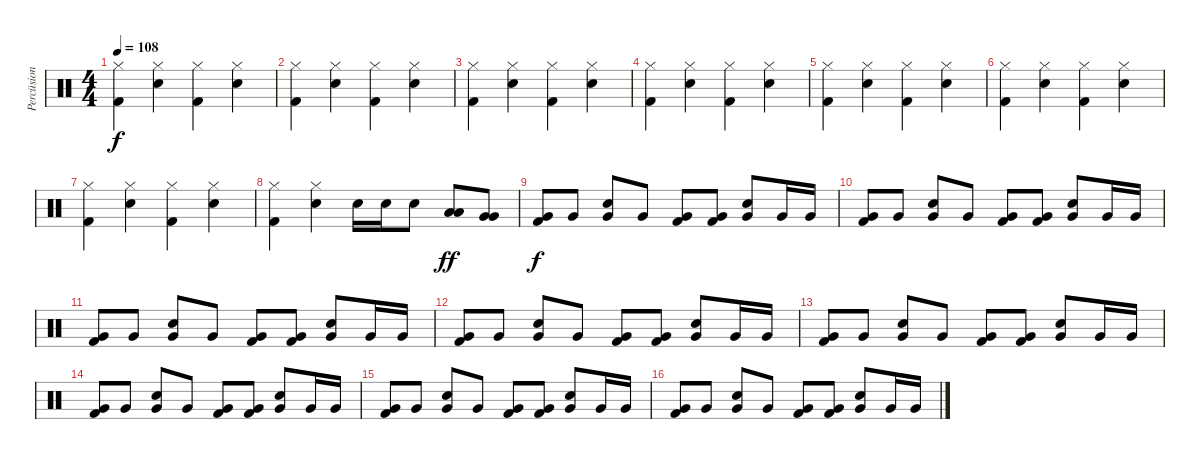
\track ("Percüsion" "Percüsion") {instrument percussion}
\staff {score}
\articulation defaults
\ts (4 4)
\tempo 108
\clef neutral
\ks c
("Hi-Hat (closed)" "Kick (hit) 2").4{dy f} ("Hi-Hat (closed)" "Snare (hit) 2").4 ("Hi-Hat (closed)" "Kick (hit) 2").4 ("Hi-Hat (closed)" "Snare (hit) 2").4 |
("Hi-Hat (closed)" "Kick (hit) 2").4 ("Hi-Hat (closed)" "Snare (hit) 2").4 ("Hi-Hat (closed)" "Kick (hit) 2").4 ("Hi-Hat (closed)" "Snare (hit) 2").4 |
("Hi-Hat (closed)" "Kick (hit) 2").4 ("Hi-Hat (closed)" "Snare (hit) 2").4 ("Hi-Hat (closed)" "Kick (hit) 2").4 ("Hi-Hat (closed)" "Snare (hit) 2").4 |
("Hi-Hat (closed)" "Kick (hit) 2").4 ("Hi-Hat (closed)" "Snare (hit) 2").4 ("Hi-Hat (closed)" "Kick (hit) 2").4 ("Hi-Hat (closed)" "Snare (hit) 2").4 |
("Hi-Hat (closed)" "Kick (hit) 2").4 ("Hi-Hat (closed)" "Snare (hit) 2").4 ("Hi-Hat (closed)" "Kick (hit) 2").4 ("Hi-Hat (closed)" "Snare (hit) 2").4 |
("Hi-Hat (closed)" "Kick (hit) 2").4 ("Hi-Hat (closed)" "Snare (hit) 2").4 ("Hi-Hat (closed)" "Kick (hit) 2").4 ("Hi-Hat (closed)" "Snare (hit) 2").4 |
("Hi-Hat (closed)" "Kick (hit) 2").4 ("Hi-Hat (closed)" "Snare (hit) 2").4 ("Hi-Hat (closed)" "Kick (hit) 2").4 ("Hi-Hat (closed)" "Snare (hit) 2").4 |
("Hi-Hat (closed)" "Kick (hit) 2").4 ("Hi-Hat (closed)" "Snare (hit) 2").4 "Snare (hit) 2".16 "Snare (hit) 2".16 "Snare (hit) 2".8 ("Low Tom (hit)" "Low Tom (hit)").8{dy ff} ("Very Low Tom (hit)" "Very Low Tom (hit)").8 |
("Very Low Tom (hit)" "Kick (hit) 2").8{dy f} "Very Low Tom (hit)".8 ("Snare (hit) 2" "Very Low Tom (hit)").8 "Very Low Tom (hit)".8 ("Very Low Tom (hit)" "Kick (hit) 2").8 ("Very Low Tom (hit)" "Kick (hit) 2").8 ("Snare (hit) 2" "Very Low Tom (hit)").8 "Very Low Tom (hit)".16 "Very Low Tom (hit)".16 |
("Very Low Tom (hit)" "Kick (hit) 2").8 "Very Low Tom (hit)".8 ("Snare (hit) 2" "Very Low Tom (hit)").8 "Very Low Tom (hit)".8 ("Very Low Tom (hit)" "Kick (hit) 2").8 ("Very Low Tom (hit)" "Kick (hit) 2").8 ("Snare (hit) 2" "Very Low Tom (hit)").8 "Very Low Tom (hit)".16 "Very Low Tom (hit)".16 |
("Very Low Tom (hit)" "Kick (hit) 2").8 "Very Low Tom (hit)".8 ("Snare (hit) 2" "Very Low Tom (hit)").8 "Very Low Tom (hit)".8 ("Very Low Tom (hit)" "Kick (hit) 2").8 ("Very Low Tom (hit)" "Kick (hit) 2").8 ("Snare (hit) 2" "Very Low Tom (hit)").8 "Very Low Tom (hit)".16 "Very Low Tom (hit)".16 |
("Very Low Tom (hit)" "Kick (hit) 2").8 "Very Low Tom (hit)".8 ("Snare (hit) 2" "Very Low Tom (hit)").8 "Very Low Tom (hit)".8 ("Very Low Tom (hit)" "Kick (hit) 2").8 ("Very Low Tom (hit)" "Kick (hit) 2").8 ("Snare (hit) 2" "Very Low Tom (hit)").8 "Very Low Tom (hit)".16 "Very Low Tom (hit)".16 |
("Very Low Tom (hit)" "Kick (hit) 2").8 "Very Low Tom (hit)".8 ("Snare (hit) 2" "Very Low Tom (hit)").8 "Very Low Tom (hit)".8 ("Very Low Tom (hit)" "Kick (hit) 2").8 ("Very Low Tom (hit)" "Kick (hit) 2").8 ("Snare (hit) 2" "Very Low Tom (hit)").8 "Very Low Tom (hit)".16 "Very Low Tom (hit)".16 |
("Very Low Tom (hit)" "Kick (hit) 2").8 "Very Low Tom (hit)".8 ("Snare (hit) 2" "Very Low Tom (hit)").8 "Very Low Tom (hit)".8 ("Very Low Tom (hit)" "Kick (hit) 2").8 ("Very Low Tom (hit)" "Kick (hit) 2").8 ("Snare (hit) 2" "Very Low Tom (hit)").8 "Very Low Tom (hit)".16 "Very Low Tom (hit)".16 |
("Very Low Tom (hit)" "Kick (hit) 2").8 "Very Low Tom (hit)".8 ("Snare (hit) 2" "Very Low Tom (hit)").8 "Very Low Tom (hit)".8 ("Very Low Tom (hit)" "Kick (hit) 2").8 ("Very Low Tom (hit)" "Kick (hit) 2").8 ("Snare (hit) 2" "Very Low Tom (hit)").8 "Very Low Tom (hit)".16 "Very Low Tom (hit)".16 |
("Very Low Tom (hit)" "Kick (hit) 2").8 "Very Low Tom (hit)".8 ("Snare (hit) 2" "Very Low Tom (hit)").8 "Very Low Tom (hit)".8 ("Very Low Tom (hit)" "Kick (hit) 2").8 ("Very Low Tom (hit)" "Kick (hit) 2").8 ("Snare (hit) 2" "Very Low Tom (hit)").8 "Very Low Tom (hit)".16 "Very Low Tom (hit)".16
